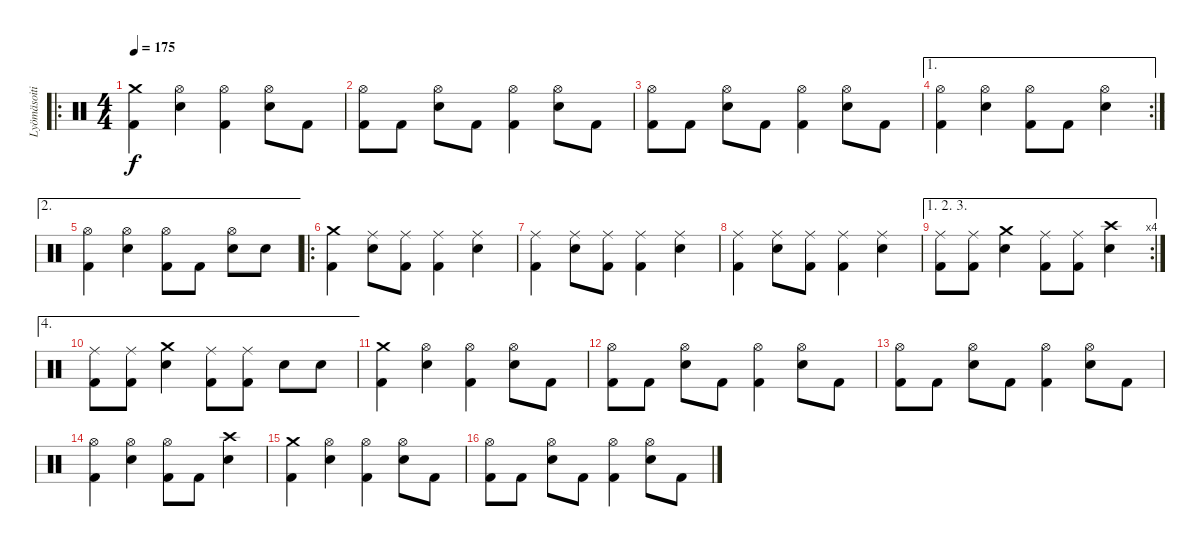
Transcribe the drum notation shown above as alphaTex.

\track ("Lyömäsoitin" "Lyömäsoiti") {instrument percussion}
\staff {score}
\articulation defaults
\ro
\ts (4 4)
\tempo 175
\clef neutral
\ks c
("Crash medium (hit)" "Kick (hit) 2").4{dy f} ("Hi-Hat (open)" "Snare (hit) 2").4 ("Hi-Hat (open)" "Kick (hit) 2").4 ("Hi-Hat (open)" "Snare (hit) 2").8 "Kick (hit) 2".8 |
("Hi-Hat (open)" "Kick (hit) 2").8 "Kick (hit) 2".8 ("Hi-Hat (open)" "Snare (hit) 2").8 "Kick (hit) 2".8 ("Hi-Hat (open)" "Kick (hit) 2").4 ("Hi-Hat (open)" "Snare (hit) 2").8 "Kick (hit) 2".8 |
("Hi-Hat (open)" "Kick (hit) 2").8 "Kick (hit) 2".8 ("Hi-Hat (open)" "Snare (hit) 2").8 "Kick (hit) 2".8 ("Hi-Hat (open)" "Kick (hit) 2").4 ("Hi-Hat (open)" "Snare (hit) 2").8 "Kick (hit) 2".8 |
\ae 1
\rc 2
("Hi-Hat (open)" "Kick (hit) 2").4 ("Hi-Hat (open)" "Snare (hit) 2").4 ("Hi-Hat (open)" "Kick (hit) 2").8 "Kick (hit) 2".8 ("Hi-Hat (open)" "Snare (hit) 2").4 |
\ae 2
("Hi-Hat (open)" "Kick (hit) 2").4 ("Hi-Hat (open)" "Snare (hit) 2").4 ("Hi-Hat (open)" "Kick (hit) 2").8 "Kick (hit) 2".8 ("Hi-Hat (open)" "Snare (hit) 2").8 "Snare (hit) 2".8 |
\ro
("Crash medium (hit)" "Kick (hit) 2").4 ("Ride (middle)" "Snare (hit) 2").8 ("Ride (middle)" "Kick (hit) 2").8 ("Ride (middle)" "Kick (hit) 2").4 ("Ride (middle)" "Snare (hit) 2").4 |
("Ride (middle)" "Kick (hit) 2").4 ("Ride (middle)" "Snare (hit) 2").8 ("Ride (middle)" "Kick (hit) 2").8 ("Ride (middle)" "Kick (hit) 2").4 ("Ride (middle)" "Snare (hit) 2").4 |
("Ride (middle)" "Kick (hit) 2").4 ("Ride (middle)" "Snare (hit) 2").8 ("Ride (middle)" "Kick (hit) 2").8 ("Ride (middle)" "Kick (hit) 2").4 ("Ride (middle)" "Snare (hit) 2").4 |
\ae (1 2 3)
\rc 4
("Ride (middle)" "Kick (hit) 2").8 ("Ride (middle)" "Kick (hit) 2").8 ("Crash medium (hit)" "Snare (hit) 2").4 ("Ride (middle)" "Kick (hit) 2").8 ("Ride (middle)" "Kick (hit) 2").8 ("Crash high (hit)" "Snare (hit) 2").4 |
\ae 4
("Ride (middle)" "Kick (hit) 2").8 ("Ride (middle)" "Kick (hit) 2").8 ("Crash medium (hit)" "Snare (hit) 2").4 ("Ride (middle)" "Kick (hit) 2").8 ("Ride (middle)" "Kick (hit) 2").8 "Snare (hit) 2".8 "Snare (hit) 2".8 |
("Crash medium (hit)" "Kick (hit) 2").4 ("Hi-Hat (open)" "Snare (hit) 2").4 ("Hi-Hat (open)" "Kick (hit) 2").4 ("Hi-Hat (open)" "Snare (hit) 2").8 "Kick (hit) 2".8 |
("Hi-Hat (open)" "Kick (hit) 2").8 "Kick (hit) 2".8 ("Hi-Hat (open)" "Snare (hit) 2").8 "Kick (hit) 2".8 ("Hi-Hat (open)" "Kick (hit) 2").4 ("Hi-Hat (open)" "Snare (hit) 2").8 "Kick (hit) 2".8 |
("Hi-Hat (open)" "Kick (hit) 2").8 "Kick (hit) 2".8 ("Hi-Hat (open)" "Snare (hit) 2").8 "Kick (hit) 2".8 ("Hi-Hat (open)" "Kick (hit) 2").4 ("Hi-Hat (open)" "Snare (hit) 2").8 "Kick (hit) 2".8 |
("Hi-Hat (open)" "Kick (hit) 2").4 ("Hi-Hat (open)" "Snare (hit) 2").4 ("Hi-Hat (open)" "Kick (hit) 2").8 "Kick (hit) 2".8 ("Crash high (hit)" "Snare (hit) 2").4 |
("Crash medium (hit)" "Kick (hit) 2").4 ("Hi-Hat (open)" "Snare (hit) 2").4 ("Hi-Hat (open)" "Kick (hit) 2").4 ("Hi-Hat (open)" "Snare (hit) 2").8 "Kick (hit) 2".8 |
("Hi-Hat (open)" "Kick (hit) 2").8 "Kick (hit) 2".8 ("Hi-Hat (open)" "Snare (hit) 2").8 "Kick (hit) 2".8 ("Hi-Hat (open)" "Kick (hit) 2").4 ("Hi-Hat (open)" "Snare (hit) 2").8 "Kick (hit) 2".8
